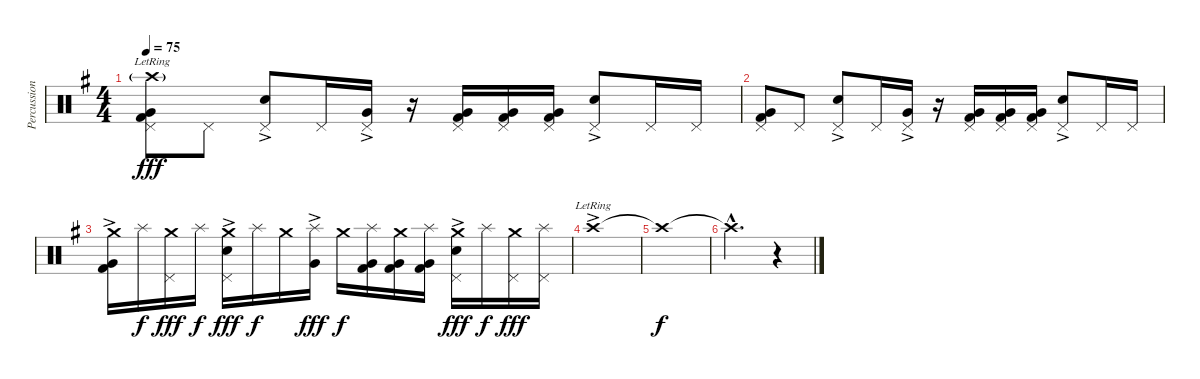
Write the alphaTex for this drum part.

\track ("Percussion" "Percussion") {instrument percussion}
\staff {score}
\articulation defaults
\ts (4 4)
\tempo 75
\clef neutral
\ks g
("Crash high (hit)"{g lr} "Pedal Hi-Hat (hit)" "Very Low Tom (hit)" "Kick (hit) 2").8{dy fff volume 8} "Pedal Hi-Hat (hit)".8 ("Pedal Hi-Hat (hit)" "Electric Snare (hit)"{ac}).8 "Pedal Hi-Hat (hit)".16 ("Pedal Hi-Hat (hit)" "Very Low Tom (hit)"{ac}).16 r.16 ("Pedal Hi-Hat (hit)" "Very Low Tom (hit)" "Kick (hit) 2").16 ("Pedal Hi-Hat (hit)" "Very Low Tom (hit)" "Kick (hit) 2").16 ("Pedal Hi-Hat (hit)" "Very Low Tom (hit)" "Kick (hit) 2").16 ("Pedal Hi-Hat (hit)" "Electric Snare (hit)"{ac}).8 "Pedal Hi-Hat (hit)".16 "Pedal Hi-Hat (hit)".16 |
("Pedal Hi-Hat (hit)" "Very Low Tom (hit)" "Kick (hit) 2").8{volume 8} "Pedal Hi-Hat (hit)".8 ("Pedal Hi-Hat (hit)" "Electric Snare (hit)"{ac}).8 "Pedal Hi-Hat (hit)".16 ("Pedal Hi-Hat (hit)" "Very Low Tom (hit)"{ac}).16 r.16 ("Pedal Hi-Hat (hit)" "Very Low Tom (hit)" "Kick (hit) 2").16 ("Pedal Hi-Hat (hit)" "Very Low Tom (hit)" "Kick (hit) 2").16 ("Pedal Hi-Hat (hit)" "Very Low Tom (hit)" "Kick (hit) 2").16 ("Pedal Hi-Hat (hit)" "Electric Snare (hit)"{ac}).8 "Pedal Hi-Hat (hit)".16 "Pedal Hi-Hat (hit)".16 |
("Crash medium (hit)" "Very Low Tom (hit)"{ac} "Kick (hit) 2").16{volume 8} "Splash (hit)".16{dy f} ("Crash medium (hit)" "Pedal Hi-Hat (hit)").16{dy fff} "Splash (hit)".16{dy f} ("Crash medium (hit)" "Pedal Hi-Hat (hit)" "Electric Snare (hit)"{ac}).16{dy fff} "Splash (hit)".16{dy f} "Crash medium (hit)".16 ("Splash (hit)" "Very Low Tom (hit)"{ac}).16{dy fff} "Crash medium (hit)".16{dy f} ("Splash (hit)" "Very Low Tom (hit)" "Kick (hit) 2").16 ("Crash medium (hit)" "Very Low Tom (hit)" "Kick (hit) 2").16 ("Splash (hit)" "Very Low Tom (hit)" "Kick (hit) 2").16 ("Crash medium (hit)" "Pedal Hi-Hat (hit)" "Electric Snare (hit)"{ac}).16{dy fff} "Splash (hit)".16{dy f} ("Crash medium (hit)" "Pedal Hi-Hat (hit)").16{dy fff} ("Splash (hit)" "Pedal Hi-Hat (hit)").16 |
"Crash high (hit)"{ac lr}.1{volume 16} |
"Crash high (hit)"{t}.1{dy f} |
"Crash high (hit)"{hac t}.2{d} r.4
